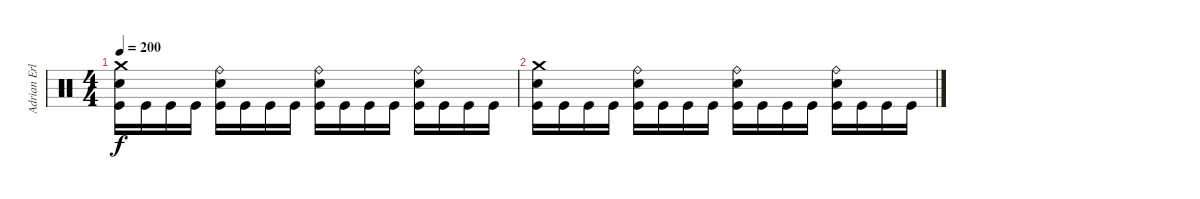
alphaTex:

\track ("Adrian Erlandsson" "Adrian Erl") {instrument percussion}
\staff {score}
\articulation defaults
\ts (4 4)
\tempo 200
\clef neutral
\ks c
("Crash medium (hit)" "Electric Snare (hit)" "Kick (hit)").16{dy f} "Kick (hit)".16 "Kick (hit)".16 "Kick (hit)".16 ("Ride (bell)" "Electric Snare (hit)" "Kick (hit)").16 "Kick (hit)".16 "Kick (hit)".16 "Kick (hit)".16 ("Ride (bell)" "Electric Snare (hit)" "Kick (hit)").16 "Kick (hit)".16 "Kick (hit)".16 "Kick (hit)".16 ("Ride (bell)" "Electric Snare (hit)" "Kick (hit)").16 "Kick (hit)".16 "Kick (hit)".16 "Kick (hit)".16 |
("Crash medium (hit)" "Electric Snare (hit)" "Kick (hit)").16 "Kick (hit)".16 "Kick (hit)".16 "Kick (hit)".16 ("Ride (bell)" "Electric Snare (hit)" "Kick (hit)").16 "Kick (hit)".16 "Kick (hit)".16 "Kick (hit)".16 ("Ride (bell)" "Electric Snare (hit)" "Kick (hit)").16 "Kick (hit)".16 "Kick (hit)".16 "Kick (hit)".16 ("Ride (bell)" "Electric Snare (hit)" "Kick (hit)").16 "Kick (hit)".16 "Kick (hit)".16 "Kick (hit)".16
